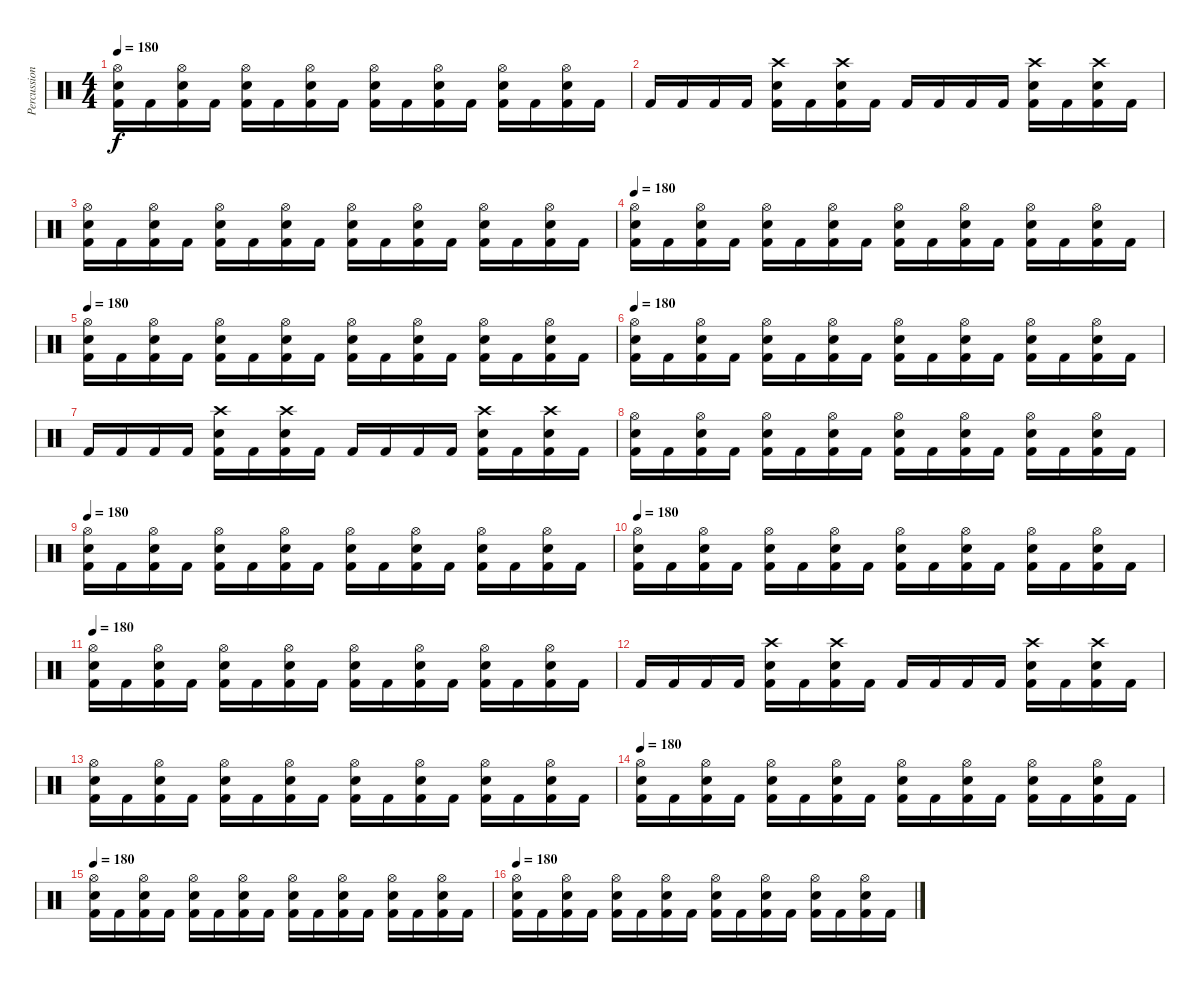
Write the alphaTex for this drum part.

\track ("Percussion" "Percussion") {instrument percussion}
\staff {score}
\articulation defaults
\ts (4 4)
\tempo 180
\clef neutral
\ks c
("Hi-Hat (open)" "Snare (hit) 2" "Kick (hit) 2").16{dy f} "Kick (hit) 2".16 ("Hi-Hat (open)" "Snare (hit) 2" "Kick (hit) 2").16 "Kick (hit) 2".16 ("Hi-Hat (open)" "Snare (hit) 2" "Kick (hit) 2").16 "Kick (hit) 2".16 ("Hi-Hat (open)" "Snare (hit) 2" "Kick (hit) 2").16 "Kick (hit) 2".16 ("Hi-Hat (open)" "Snare (hit) 2" "Kick (hit) 2").16 "Kick (hit) 2".16 ("Hi-Hat (open)" "Snare (hit) 2" "Kick (hit) 2").16 "Kick (hit) 2".16 ("Hi-Hat (open)" "Snare (hit) 2" "Kick (hit) 2").16 "Kick (hit) 2".16 ("Hi-Hat (open)" "Snare (hit) 2" "Kick (hit) 2").16 "Kick (hit) 2".16 |
"Kick (hit) 2".16 "Kick (hit) 2".16 "Kick (hit) 2".16 "Kick (hit) 2".16 ("Crash high (hit)" "Snare (hit) 2" "Kick (hit) 2").16 "Kick (hit) 2".16 ("Crash high (hit)" "Snare (hit) 2" "Kick (hit) 2").16 "Kick (hit) 2".16 "Kick (hit) 2".16 "Kick (hit) 2".16 "Kick (hit) 2".16 "Kick (hit) 2".16 ("Crash high (hit)" "Snare (hit) 2" "Kick (hit) 2").16 "Kick (hit) 2".16 ("Crash high (hit)" "Snare (hit) 2" "Kick (hit) 2").16 "Kick (hit) 2".16 |
("Hi-Hat (open)" "Snare (hit) 2" "Kick (hit) 2").16 "Kick (hit) 2".16 ("Hi-Hat (open)" "Snare (hit) 2" "Kick (hit) 2").16 "Kick (hit) 2".16 ("Hi-Hat (open)" "Snare (hit) 2" "Kick (hit) 2").16 "Kick (hit) 2".16 ("Hi-Hat (open)" "Snare (hit) 2" "Kick (hit) 2").16 "Kick (hit) 2".16 ("Hi-Hat (open)" "Snare (hit) 2" "Kick (hit) 2").16 "Kick (hit) 2".16 ("Hi-Hat (open)" "Snare (hit) 2" "Kick (hit) 2").16 "Kick (hit) 2".16 ("Hi-Hat (open)" "Snare (hit) 2" "Kick (hit) 2").16 "Kick (hit) 2".16 ("Hi-Hat (open)" "Snare (hit) 2" "Kick (hit) 2").16 "Kick (hit) 2".16 |
\tempo 180
("Hi-Hat (open)" "Snare (hit) 2" "Kick (hit) 2").16 "Kick (hit) 2".16 ("Hi-Hat (open)" "Snare (hit) 2" "Kick (hit) 2").16 "Kick (hit) 2".16 ("Hi-Hat (open)" "Snare (hit) 2" "Kick (hit) 2").16 "Kick (hit) 2".16 ("Hi-Hat (open)" "Snare (hit) 2" "Kick (hit) 2").16 "Kick (hit) 2".16 ("Hi-Hat (open)" "Snare (hit) 2" "Kick (hit) 2").16 "Kick (hit) 2".16 ("Hi-Hat (open)" "Snare (hit) 2" "Kick (hit) 2").16 "Kick (hit) 2".16 ("Hi-Hat (open)" "Snare (hit) 2" "Kick (hit) 2").16 "Kick (hit) 2".16 ("Hi-Hat (open)" "Snare (hit) 2" "Kick (hit) 2").16 "Kick (hit) 2".16 |
\tempo 180
("Hi-Hat (open)" "Snare (hit) 2" "Kick (hit) 2").16 "Kick (hit) 2".16 ("Hi-Hat (open)" "Snare (hit) 2" "Kick (hit) 2").16 "Kick (hit) 2".16 ("Hi-Hat (open)" "Snare (hit) 2" "Kick (hit) 2").16 "Kick (hit) 2".16 ("Hi-Hat (open)" "Snare (hit) 2" "Kick (hit) 2").16 "Kick (hit) 2".16 ("Hi-Hat (open)" "Snare (hit) 2" "Kick (hit) 2").16 "Kick (hit) 2".16 ("Hi-Hat (open)" "Snare (hit) 2" "Kick (hit) 2").16 "Kick (hit) 2".16 ("Hi-Hat (open)" "Snare (hit) 2" "Kick (hit) 2").16 "Kick (hit) 2".16 ("Hi-Hat (open)" "Snare (hit) 2" "Kick (hit) 2").16 "Kick (hit) 2".16 |
\tempo 180
("Hi-Hat (open)" "Snare (hit) 2" "Kick (hit) 2").16 "Kick (hit) 2".16 ("Hi-Hat (open)" "Snare (hit) 2" "Kick (hit) 2").16 "Kick (hit) 2".16 ("Hi-Hat (open)" "Snare (hit) 2" "Kick (hit) 2").16 "Kick (hit) 2".16 ("Hi-Hat (open)" "Snare (hit) 2" "Kick (hit) 2").16 "Kick (hit) 2".16 ("Hi-Hat (open)" "Snare (hit) 2" "Kick (hit) 2").16 "Kick (hit) 2".16 ("Hi-Hat (open)" "Snare (hit) 2" "Kick (hit) 2").16 "Kick (hit) 2".16 ("Hi-Hat (open)" "Snare (hit) 2" "Kick (hit) 2").16 "Kick (hit) 2".16 ("Hi-Hat (open)" "Snare (hit) 2" "Kick (hit) 2").16 "Kick (hit) 2".16 |
"Kick (hit) 2".16 "Kick (hit) 2".16 "Kick (hit) 2".16 "Kick (hit) 2".16 ("Crash high (hit)" "Snare (hit) 2" "Kick (hit) 2").16 "Kick (hit) 2".16 ("Crash high (hit)" "Snare (hit) 2" "Kick (hit) 2").16 "Kick (hit) 2".16 "Kick (hit) 2".16 "Kick (hit) 2".16 "Kick (hit) 2".16 "Kick (hit) 2".16 ("Crash high (hit)" "Snare (hit) 2" "Kick (hit) 2").16 "Kick (hit) 2".16 ("Crash high (hit)" "Snare (hit) 2" "Kick (hit) 2").16 "Kick (hit) 2".16 |
("Hi-Hat (open)" "Snare (hit) 2" "Kick (hit) 2").16 "Kick (hit) 2".16 ("Hi-Hat (open)" "Snare (hit) 2" "Kick (hit) 2").16 "Kick (hit) 2".16 ("Hi-Hat (open)" "Snare (hit) 2" "Kick (hit) 2").16 "Kick (hit) 2".16 ("Hi-Hat (open)" "Snare (hit) 2" "Kick (hit) 2").16 "Kick (hit) 2".16 ("Hi-Hat (open)" "Snare (hit) 2" "Kick (hit) 2").16 "Kick (hit) 2".16 ("Hi-Hat (open)" "Snare (hit) 2" "Kick (hit) 2").16 "Kick (hit) 2".16 ("Hi-Hat (open)" "Snare (hit) 2" "Kick (hit) 2").16 "Kick (hit) 2".16 ("Hi-Hat (open)" "Snare (hit) 2" "Kick (hit) 2").16 "Kick (hit) 2".16 |
\tempo 180
("Hi-Hat (open)" "Snare (hit) 2" "Kick (hit) 2").16 "Kick (hit) 2".16 ("Hi-Hat (open)" "Snare (hit) 2" "Kick (hit) 2").16 "Kick (hit) 2".16 ("Hi-Hat (open)" "Snare (hit) 2" "Kick (hit) 2").16 "Kick (hit) 2".16 ("Hi-Hat (open)" "Snare (hit) 2" "Kick (hit) 2").16 "Kick (hit) 2".16 ("Hi-Hat (open)" "Snare (hit) 2" "Kick (hit) 2").16 "Kick (hit) 2".16 ("Hi-Hat (open)" "Snare (hit) 2" "Kick (hit) 2").16 "Kick (hit) 2".16 ("Hi-Hat (open)" "Snare (hit) 2" "Kick (hit) 2").16 "Kick (hit) 2".16 ("Hi-Hat (open)" "Snare (hit) 2" "Kick (hit) 2").16 "Kick (hit) 2".16 |
\tempo 180
("Hi-Hat (open)" "Snare (hit) 2" "Kick (hit) 2").16 "Kick (hit) 2".16 ("Hi-Hat (open)" "Snare (hit) 2" "Kick (hit) 2").16 "Kick (hit) 2".16 ("Hi-Hat (open)" "Snare (hit) 2" "Kick (hit) 2").16 "Kick (hit) 2".16 ("Hi-Hat (open)" "Snare (hit) 2" "Kick (hit) 2").16 "Kick (hit) 2".16 ("Hi-Hat (open)" "Snare (hit) 2" "Kick (hit) 2").16 "Kick (hit) 2".16 ("Hi-Hat (open)" "Snare (hit) 2" "Kick (hit) 2").16 "Kick (hit) 2".16 ("Hi-Hat (open)" "Snare (hit) 2" "Kick (hit) 2").16 "Kick (hit) 2".16 ("Hi-Hat (open)" "Snare (hit) 2" "Kick (hit) 2").16 "Kick (hit) 2".16 |
\tempo 180
("Hi-Hat (open)" "Snare (hit) 2" "Kick (hit) 2").16 "Kick (hit) 2".16 ("Hi-Hat (open)" "Snare (hit) 2" "Kick (hit) 2").16 "Kick (hit) 2".16 ("Hi-Hat (open)" "Snare (hit) 2" "Kick (hit) 2").16 "Kick (hit) 2".16 ("Hi-Hat (open)" "Snare (hit) 2" "Kick (hit) 2").16 "Kick (hit) 2".16 ("Hi-Hat (open)" "Snare (hit) 2" "Kick (hit) 2").16 "Kick (hit) 2".16 ("Hi-Hat (open)" "Snare (hit) 2" "Kick (hit) 2").16 "Kick (hit) 2".16 ("Hi-Hat (open)" "Snare (hit) 2" "Kick (hit) 2").16 "Kick (hit) 2".16 ("Hi-Hat (open)" "Snare (hit) 2" "Kick (hit) 2").16 "Kick (hit) 2".16 |
"Kick (hit) 2".16 "Kick (hit) 2".16 "Kick (hit) 2".16 "Kick (hit) 2".16 ("Crash high (hit)" "Snare (hit) 2" "Kick (hit) 2").16 "Kick (hit) 2".16 ("Crash high (hit)" "Snare (hit) 2" "Kick (hit) 2").16 "Kick (hit) 2".16 "Kick (hit) 2".16 "Kick (hit) 2".16 "Kick (hit) 2".16 "Kick (hit) 2".16 ("Crash high (hit)" "Snare (hit) 2" "Kick (hit) 2").16 "Kick (hit) 2".16 ("Crash high (hit)" "Snare (hit) 2" "Kick (hit) 2").16 "Kick (hit) 2".16 |
("Hi-Hat (open)" "Snare (hit) 2" "Kick (hit) 2").16 "Kick (hit) 2".16 ("Hi-Hat (open)" "Snare (hit) 2" "Kick (hit) 2").16 "Kick (hit) 2".16 ("Hi-Hat (open)" "Snare (hit) 2" "Kick (hit) 2").16 "Kick (hit) 2".16 ("Hi-Hat (open)" "Snare (hit) 2" "Kick (hit) 2").16 "Kick (hit) 2".16 ("Hi-Hat (open)" "Snare (hit) 2" "Kick (hit) 2").16 "Kick (hit) 2".16 ("Hi-Hat (open)" "Snare (hit) 2" "Kick (hit) 2").16 "Kick (hit) 2".16 ("Hi-Hat (open)" "Snare (hit) 2" "Kick (hit) 2").16 "Kick (hit) 2".16 ("Hi-Hat (open)" "Snare (hit) 2" "Kick (hit) 2").16 "Kick (hit) 2".16 |
\tempo 180
("Hi-Hat (open)" "Snare (hit) 2" "Kick (hit) 2").16 "Kick (hit) 2".16 ("Hi-Hat (open)" "Snare (hit) 2" "Kick (hit) 2").16 "Kick (hit) 2".16 ("Hi-Hat (open)" "Snare (hit) 2" "Kick (hit) 2").16 "Kick (hit) 2".16 ("Hi-Hat (open)" "Snare (hit) 2" "Kick (hit) 2").16 "Kick (hit) 2".16 ("Hi-Hat (open)" "Snare (hit) 2" "Kick (hit) 2").16 "Kick (hit) 2".16 ("Hi-Hat (open)" "Snare (hit) 2" "Kick (hit) 2").16 "Kick (hit) 2".16 ("Hi-Hat (open)" "Snare (hit) 2" "Kick (hit) 2").16 "Kick (hit) 2".16 ("Hi-Hat (open)" "Snare (hit) 2" "Kick (hit) 2").16 "Kick (hit) 2".16 |
\tempo 180
("Hi-Hat (open)" "Snare (hit) 2" "Kick (hit) 2").16 "Kick (hit) 2".16 ("Hi-Hat (open)" "Snare (hit) 2" "Kick (hit) 2").16 "Kick (hit) 2".16 ("Hi-Hat (open)" "Snare (hit) 2" "Kick (hit) 2").16 "Kick (hit) 2".16 ("Hi-Hat (open)" "Snare (hit) 2" "Kick (hit) 2").16 "Kick (hit) 2".16 ("Hi-Hat (open)" "Snare (hit) 2" "Kick (hit) 2").16 "Kick (hit) 2".16 ("Hi-Hat (open)" "Snare (hit) 2" "Kick (hit) 2").16 "Kick (hit) 2".16 ("Hi-Hat (open)" "Snare (hit) 2" "Kick (hit) 2").16 "Kick (hit) 2".16 ("Hi-Hat (open)" "Snare (hit) 2" "Kick (hit) 2").16 "Kick (hit) 2".16 |
\tempo 180
("Hi-Hat (open)" "Snare (hit) 2" "Kick (hit) 2").16 "Kick (hit) 2".16 ("Hi-Hat (open)" "Snare (hit) 2" "Kick (hit) 2").16 "Kick (hit) 2".16 ("Hi-Hat (open)" "Snare (hit) 2" "Kick (hit) 2").16 "Kick (hit) 2".16 ("Hi-Hat (open)" "Snare (hit) 2" "Kick (hit) 2").16 "Kick (hit) 2".16 ("Hi-Hat (open)" "Snare (hit) 2" "Kick (hit) 2").16 "Kick (hit) 2".16 ("Hi-Hat (open)" "Snare (hit) 2" "Kick (hit) 2").16 "Kick (hit) 2".16 ("Hi-Hat (open)" "Snare (hit) 2" "Kick (hit) 2").16 "Kick (hit) 2".16 ("Hi-Hat (open)" "Snare (hit) 2" "Kick (hit) 2").16 "Kick (hit) 2".16
